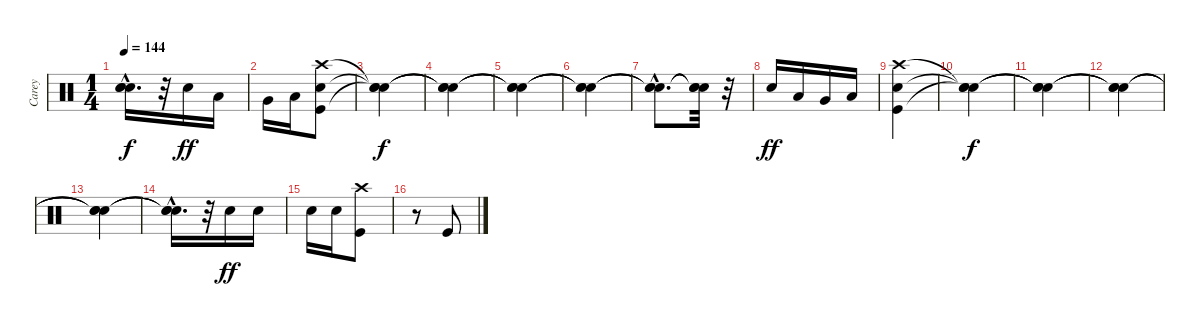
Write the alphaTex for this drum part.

\track ("Carey" "Carey") {instrument percussion}
\staff {score}
\articulation defaults
\ts (1 4)
\tempo 144
\clef neutral
\ks c
("Snare (hit)"{hac t} "Snare (hit)"{hac t} "Snare (hit)"{hac t}).16{d dy f} r.32 "Snare (hit) 2".16{dy ff} "Low Tom (hit)".16 |
"Very Low Tom (hit)".16 "Low Floor Tom (hit)".16 ("Kick (hit)" "Snare (hit) 2" "Crash high (hit)").8 |
("Snare (hit)"{t} "Snare (hit)"{t} "Snare (hit)"{t}).4{dy f} |
("Snare (hit)"{t} "Snare (hit)"{t} "Snare (hit)"{t}).4 |
("Snare (hit)"{t} "Snare (hit)"{t} "Snare (hit)"{t}).4 |
("Snare (hit)"{t} "Snare (hit)"{t} "Snare (hit)"{t}).4 |
("Snare (hit)"{hac t} "Snare (hit)"{hac t} "Snare (hit)"{hac t}).8{d} ("Snare (hit)"{t} "Snare (hit)"{t} "Snare (hit)"{t}).32 r.32 |
"Snare (hit) 2".16{dy ff} "Low Tom (hit)".16 "Very Low Tom (hit)".16 "Low Floor Tom (hit)".16 |
("Kick (hit)" "Snare (hit) 2" "Crash high (hit)").4 |
("Snare (hit)"{t} "Snare (hit)"{t} "Snare (hit)"{t}).4{dy f} |
("Snare (hit)"{t} "Snare (hit)"{t} "Snare (hit)"{t}).4 |
("Snare (hit)"{t} "Snare (hit)"{t} "Snare (hit)"{t}).4 |
("Snare (hit)"{t} "Snare (hit)"{t} "Snare (hit)"{t}).4 |
("Snare (hit)"{hac t} "Snare (hit)"{hac t} "Snare (hit)"{hac t}).16{d} r.32 "Snare (hit) 2".16{dy ff} "Snare (hit) 2".16 |
"Snare (hit) 2".16 "Snare (hit) 2".16 ("Kick (hit)" "Crash high (hit)").8 |
r.8 "Kick (hit)".8
